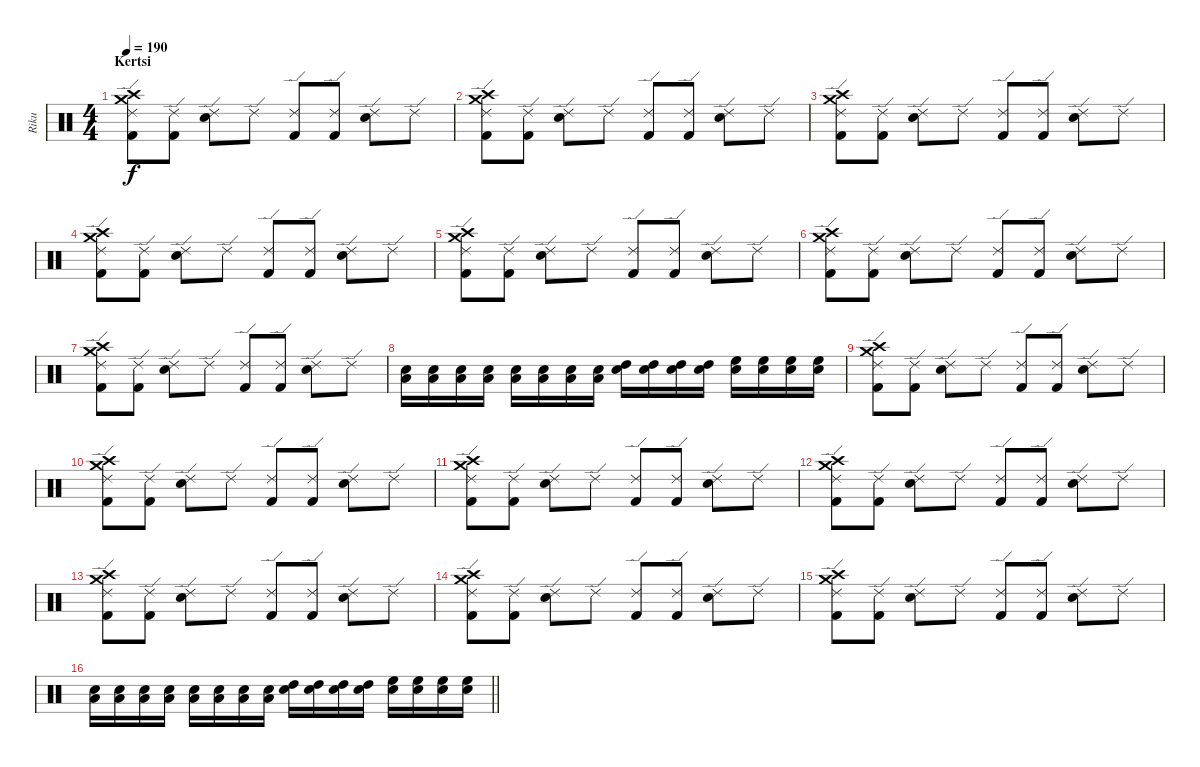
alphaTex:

\track ("Riku" "Riku") {instrument percussion}
\staff {score}
\articulation defaults
\ts (4 4)
\section ("" "Kertsi")
\tempo 190
\clef neutral
\ks c
("Crash high (hit)" "Kick (hit) 2" "Ride (edge) 2" "Crash medium (hit)").8{dy f} ("Kick (hit) 2" "Ride (edge) 2").8 ("Snare (hit) 2" "Ride (edge) 2").8 "Ride (edge) 2".8 ("Kick (hit) 2" "Ride (edge) 2").8 ("Kick (hit) 2" "Ride (edge) 2").8 ("Snare (hit) 2" "Ride (edge) 2").8 "Ride (edge) 2".8 |
("Crash high (hit)" "Kick (hit) 2" "Ride (edge) 2" "Crash medium (hit)").8 ("Kick (hit) 2" "Ride (edge) 2").8 ("Snare (hit) 2" "Ride (edge) 2").8 "Ride (edge) 2".8 ("Kick (hit) 2" "Ride (edge) 2").8 ("Kick (hit) 2" "Ride (edge) 2").8 ("Snare (hit) 2" "Ride (edge) 2").8 "Ride (edge) 2".8 |
("Crash high (hit)" "Kick (hit) 2" "Ride (edge) 2" "Crash medium (hit)").8 ("Kick (hit) 2" "Ride (edge) 2").8 ("Snare (hit) 2" "Ride (edge) 2").8 "Ride (edge) 2".8 ("Kick (hit) 2" "Ride (edge) 2").8 ("Kick (hit) 2" "Ride (edge) 2").8 ("Snare (hit) 2" "Ride (edge) 2").8 "Ride (edge) 2".8 |
("Crash high (hit)" "Kick (hit) 2" "Ride (edge) 2" "Crash medium (hit)").8 ("Kick (hit) 2" "Ride (edge) 2").8 ("Snare (hit) 2" "Ride (edge) 2").8 "Ride (edge) 2".8 ("Kick (hit) 2" "Ride (edge) 2").8 ("Kick (hit) 2" "Ride (edge) 2").8 ("Snare (hit) 2" "Ride (edge) 2").8 "Ride (edge) 2".8 |
("Crash high (hit)" "Kick (hit) 2" "Ride (edge) 2" "Crash medium (hit)").8 ("Kick (hit) 2" "Ride (edge) 2").8 ("Snare (hit) 2" "Ride (edge) 2").8 "Ride (edge) 2".8 ("Kick (hit) 2" "Ride (edge) 2").8 ("Kick (hit) 2" "Ride (edge) 2").8 ("Snare (hit) 2" "Ride (edge) 2").8 "Ride (edge) 2".8 |
("Crash high (hit)" "Kick (hit) 2" "Ride (edge) 2" "Crash medium (hit)").8 ("Kick (hit) 2" "Ride (edge) 2").8 ("Snare (hit) 2" "Ride (edge) 2").8 "Ride (edge) 2".8 ("Kick (hit) 2" "Ride (edge) 2").8 ("Kick (hit) 2" "Ride (edge) 2").8 ("Snare (hit) 2" "Ride (edge) 2").8 "Ride (edge) 2".8 |
("Crash high (hit)" "Kick (hit) 2" "Ride (edge) 2" "Crash medium (hit)").8 ("Kick (hit) 2" "Ride (edge) 2").8 ("Snare (hit) 2" "Ride (edge) 2").8 "Ride (edge) 2".8 ("Kick (hit) 2" "Ride (edge) 2").8 ("Kick (hit) 2" "Ride (edge) 2").8 ("Snare (hit) 2" "Ride (edge) 2").8 "Ride (edge) 2".8 |
("Snare (hit) 2" "Low Floor Tom (hit)").16 ("Snare (hit) 2" "Low Floor Tom (hit)").16 ("Snare (hit) 2" "Low Floor Tom (hit)").16 ("Snare (hit) 2" "Low Floor Tom (hit)").16 ("Snare (hit) 2" "Low Tom (hit)").16 ("Snare (hit) 2" "Low Tom (hit)").16 ("Snare (hit) 2" "Low Tom (hit)").16 ("Snare (hit) 2" "Low Tom (hit)").16 ("Snare (hit) 2" "High Tom (hit)").16 ("Snare (hit) 2" "High Tom (hit)").16 ("Snare (hit) 2" "High Tom (hit)").16 ("Snare (hit) 2" "High Tom (hit)").16 ("Snare (hit) 2" "High Floor Tom (hit)").16 ("Snare (hit) 2" "High Floor Tom (hit)").16 ("Snare (hit) 2" "High Floor Tom (hit)").16 ("Snare (hit) 2" "High Floor Tom (hit)").16 |
("Crash high (hit)" "Kick (hit) 2" "Ride (edge) 2" "Crash medium (hit)").8 ("Kick (hit) 2" "Ride (edge) 2").8 ("Snare (hit) 2" "Ride (edge) 2").8 "Ride (edge) 2".8 ("Kick (hit) 2" "Ride (edge) 2").8 ("Kick (hit) 2" "Ride (edge) 2").8 ("Snare (hit) 2" "Ride (edge) 2").8 "Ride (edge) 2".8 |
("Crash high (hit)" "Kick (hit) 2" "Ride (edge) 2" "Crash medium (hit)").8 ("Kick (hit) 2" "Ride (edge) 2").8 ("Snare (hit) 2" "Ride (edge) 2").8 "Ride (edge) 2".8 ("Kick (hit) 2" "Ride (edge) 2").8 ("Kick (hit) 2" "Ride (edge) 2").8 ("Snare (hit) 2" "Ride (edge) 2").8 "Ride (edge) 2".8 |
("Crash high (hit)" "Kick (hit) 2" "Ride (edge) 2" "Crash medium (hit)").8 ("Kick (hit) 2" "Ride (edge) 2").8 ("Snare (hit) 2" "Ride (edge) 2").8 "Ride (edge) 2".8 ("Kick (hit) 2" "Ride (edge) 2").8 ("Kick (hit) 2" "Ride (edge) 2").8 ("Snare (hit) 2" "Ride (edge) 2").8 "Ride (edge) 2".8 |
("Crash high (hit)" "Kick (hit) 2" "Ride (edge) 2" "Crash medium (hit)").8 ("Kick (hit) 2" "Ride (edge) 2").8 ("Snare (hit) 2" "Ride (edge) 2").8 "Ride (edge) 2".8 ("Kick (hit) 2" "Ride (edge) 2").8 ("Kick (hit) 2" "Ride (edge) 2").8 ("Snare (hit) 2" "Ride (edge) 2").8 "Ride (edge) 2".8 |
("Crash high (hit)" "Kick (hit) 2" "Ride (edge) 2" "Crash medium (hit)").8 ("Kick (hit) 2" "Ride (edge) 2").8 ("Snare (hit) 2" "Ride (edge) 2").8 "Ride (edge) 2".8 ("Kick (hit) 2" "Ride (edge) 2").8 ("Kick (hit) 2" "Ride (edge) 2").8 ("Snare (hit) 2" "Ride (edge) 2").8 "Ride (edge) 2".8 |
("Crash high (hit)" "Kick (hit) 2" "Ride (edge) 2" "Crash medium (hit)").8 ("Kick (hit) 2" "Ride (edge) 2").8 ("Snare (hit) 2" "Ride (edge) 2").8 "Ride (edge) 2".8 ("Kick (hit) 2" "Ride (edge) 2").8 ("Kick (hit) 2" "Ride (edge) 2").8 ("Snare (hit) 2" "Ride (edge) 2").8 "Ride (edge) 2".8 |
("Crash high (hit)" "Kick (hit) 2" "Ride (edge) 2" "Crash medium (hit)").8 ("Kick (hit) 2" "Ride (edge) 2").8 ("Snare (hit) 2" "Ride (edge) 2").8 "Ride (edge) 2".8 ("Kick (hit) 2" "Ride (edge) 2").8 ("Kick (hit) 2" "Ride (edge) 2").8 ("Snare (hit) 2" "Ride (edge) 2").8 "Ride (edge) 2".8 |
\barLineRight lightlight
("Snare (hit) 2" "Low Floor Tom (hit)").16 ("Snare (hit) 2" "Low Floor Tom (hit)").16 ("Snare (hit) 2" "Low Floor Tom (hit)").16 ("Snare (hit) 2" "Low Floor Tom (hit)").16 ("Snare (hit) 2" "Low Tom (hit)").16 ("Snare (hit) 2" "Low Tom (hit)").16 ("Snare (hit) 2" "Low Tom (hit)").16 ("Snare (hit) 2" "Low Tom (hit)").16 ("Snare (hit) 2" "High Tom (hit)").16 ("Snare (hit) 2" "High Tom (hit)").16 ("Snare (hit) 2" "High Tom (hit)").16 ("Snare (hit) 2" "High Tom (hit)").16 ("Snare (hit) 2" "High Floor Tom (hit)").16 ("Snare (hit) 2" "High Floor Tom (hit)").16 ("Snare (hit) 2" "High Floor Tom (hit)").16 ("Snare (hit) 2" "High Floor Tom (hit)").16
